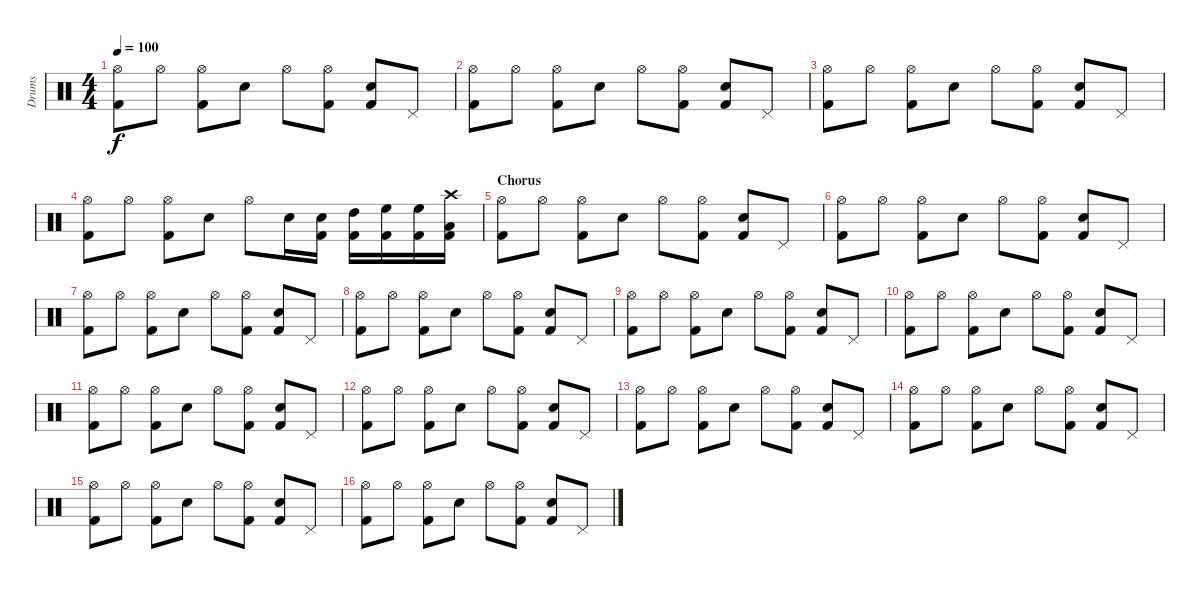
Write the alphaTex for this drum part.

\track ("Drums" "Drums") {instrument percussion}
\staff {score}
\articulation defaults
\ts (4 4)
\tempo 100
\clef neutral
\ks c
("Hi-Hat (open)" "Kick (hit) 2").8{dy f} "Hi-Hat (open)".8 ("Hi-Hat (open)" "Kick (hit) 2").8 "Snare (hit) 2".8 "Hi-Hat (open)".8 ("Hi-Hat (open)" "Kick (hit) 2").8 ("Snare (hit) 2" "Kick (hit) 2").8 "Pedal Hi-Hat (hit)".8 |
("Hi-Hat (open)" "Kick (hit) 2").8 "Hi-Hat (open)".8 ("Hi-Hat (open)" "Kick (hit) 2").8 "Snare (hit) 2".8 "Hi-Hat (open)".8 ("Hi-Hat (open)" "Kick (hit) 2").8 ("Snare (hit) 2" "Kick (hit) 2").8 "Pedal Hi-Hat (hit)".8 |
("Hi-Hat (open)" "Kick (hit) 2").8 "Hi-Hat (open)".8 ("Hi-Hat (open)" "Kick (hit) 2").8 "Snare (hit) 2".8 "Hi-Hat (open)".8 ("Hi-Hat (open)" "Kick (hit) 2").8 ("Snare (hit) 2" "Kick (hit) 2").8 "Pedal Hi-Hat (hit)".8 |
("Hi-Hat (open)" "Kick (hit) 2").8 "Hi-Hat (open)".8 ("Hi-Hat (open)" "Kick (hit) 2").8 "Snare (hit) 2".8 "Hi-Hat (open)".8 "Snare (hit) 2".16 ("Snare (hit) 2" "Kick (hit) 2").16 ("High Tom (hit)" "Kick (hit) 2").16 ("High Floor Tom (hit)" "Kick (hit) 2").16 ("High Floor Tom (hit)" "Kick (hit) 2").16 ("Crash high (hit)" "Low Tom (hit)" "Kick (hit) 2").16 |
\section ("" "Chorus")
("Hi-Hat (open)" "Kick (hit) 2").8 "Hi-Hat (open)".8 ("Hi-Hat (open)" "Kick (hit) 2").8 "Snare (hit) 2".8 "Hi-Hat (open)".8 ("Hi-Hat (open)" "Kick (hit) 2").8 ("Snare (hit) 2" "Kick (hit) 2").8 "Pedal Hi-Hat (hit)".8 |
("Hi-Hat (open)" "Kick (hit) 2").8 "Hi-Hat (open)".8 ("Hi-Hat (open)" "Kick (hit) 2").8 "Snare (hit) 2".8 "Hi-Hat (open)".8 ("Hi-Hat (open)" "Kick (hit) 2").8 ("Snare (hit) 2" "Kick (hit) 2").8 "Pedal Hi-Hat (hit)".8 |
("Hi-Hat (open)" "Kick (hit) 2").8 "Hi-Hat (open)".8 ("Hi-Hat (open)" "Kick (hit) 2").8 "Snare (hit) 2".8 "Hi-Hat (open)".8 ("Hi-Hat (open)" "Kick (hit) 2").8 ("Snare (hit) 2" "Kick (hit) 2").8 "Pedal Hi-Hat (hit)".8 |
("Hi-Hat (open)" "Kick (hit) 2").8 "Hi-Hat (open)".8 ("Hi-Hat (open)" "Kick (hit) 2").8 "Snare (hit) 2".8 "Hi-Hat (open)".8 ("Hi-Hat (open)" "Kick (hit) 2").8 ("Snare (hit) 2" "Kick (hit) 2").8 "Pedal Hi-Hat (hit)".8 |
("Hi-Hat (open)" "Kick (hit) 2").8 "Hi-Hat (open)".8 ("Hi-Hat (open)" "Kick (hit) 2").8 "Snare (hit) 2".8 "Hi-Hat (open)".8 ("Hi-Hat (open)" "Kick (hit) 2").8 ("Snare (hit) 2" "Kick (hit) 2").8 "Pedal Hi-Hat (hit)".8 |
("Hi-Hat (open)" "Kick (hit) 2").8 "Hi-Hat (open)".8 ("Hi-Hat (open)" "Kick (hit) 2").8 "Snare (hit) 2".8 "Hi-Hat (open)".8 ("Hi-Hat (open)" "Kick (hit) 2").8 ("Snare (hit) 2" "Kick (hit) 2").8 "Pedal Hi-Hat (hit)".8 |
("Hi-Hat (open)" "Kick (hit) 2").8 "Hi-Hat (open)".8 ("Hi-Hat (open)" "Kick (hit) 2").8 "Snare (hit) 2".8 "Hi-Hat (open)".8 ("Hi-Hat (open)" "Kick (hit) 2").8 ("Snare (hit) 2" "Kick (hit) 2").8 "Pedal Hi-Hat (hit)".8 |
("Hi-Hat (open)" "Kick (hit) 2").8 "Hi-Hat (open)".8 ("Hi-Hat (open)" "Kick (hit) 2").8 "Snare (hit) 2".8 "Hi-Hat (open)".8 ("Hi-Hat (open)" "Kick (hit) 2").8 ("Snare (hit) 2" "Kick (hit) 2").8 "Pedal Hi-Hat (hit)".8 |
("Hi-Hat (open)" "Kick (hit) 2").8 "Hi-Hat (open)".8 ("Hi-Hat (open)" "Kick (hit) 2").8 "Snare (hit) 2".8 "Hi-Hat (open)".8 ("Hi-Hat (open)" "Kick (hit) 2").8 ("Snare (hit) 2" "Kick (hit) 2").8 "Pedal Hi-Hat (hit)".8 |
("Hi-Hat (open)" "Kick (hit) 2").8 "Hi-Hat (open)".8 ("Hi-Hat (open)" "Kick (hit) 2").8 "Snare (hit) 2".8 "Hi-Hat (open)".8 ("Hi-Hat (open)" "Kick (hit) 2").8 ("Snare (hit) 2" "Kick (hit) 2").8 "Pedal Hi-Hat (hit)".8 |
("Hi-Hat (open)" "Kick (hit) 2").8 "Hi-Hat (open)".8 ("Hi-Hat (open)" "Kick (hit) 2").8 "Snare (hit) 2".8 "Hi-Hat (open)".8 ("Hi-Hat (open)" "Kick (hit) 2").8 ("Snare (hit) 2" "Kick (hit) 2").8 "Pedal Hi-Hat (hit)".8 |
("Hi-Hat (open)" "Kick (hit) 2").8 "Hi-Hat (open)".8 ("Hi-Hat (open)" "Kick (hit) 2").8 "Snare (hit) 2".8 "Hi-Hat (open)".8 ("Hi-Hat (open)" "Kick (hit) 2").8 ("Snare (hit) 2" "Kick (hit) 2").8 "Pedal Hi-Hat (hit)".8
